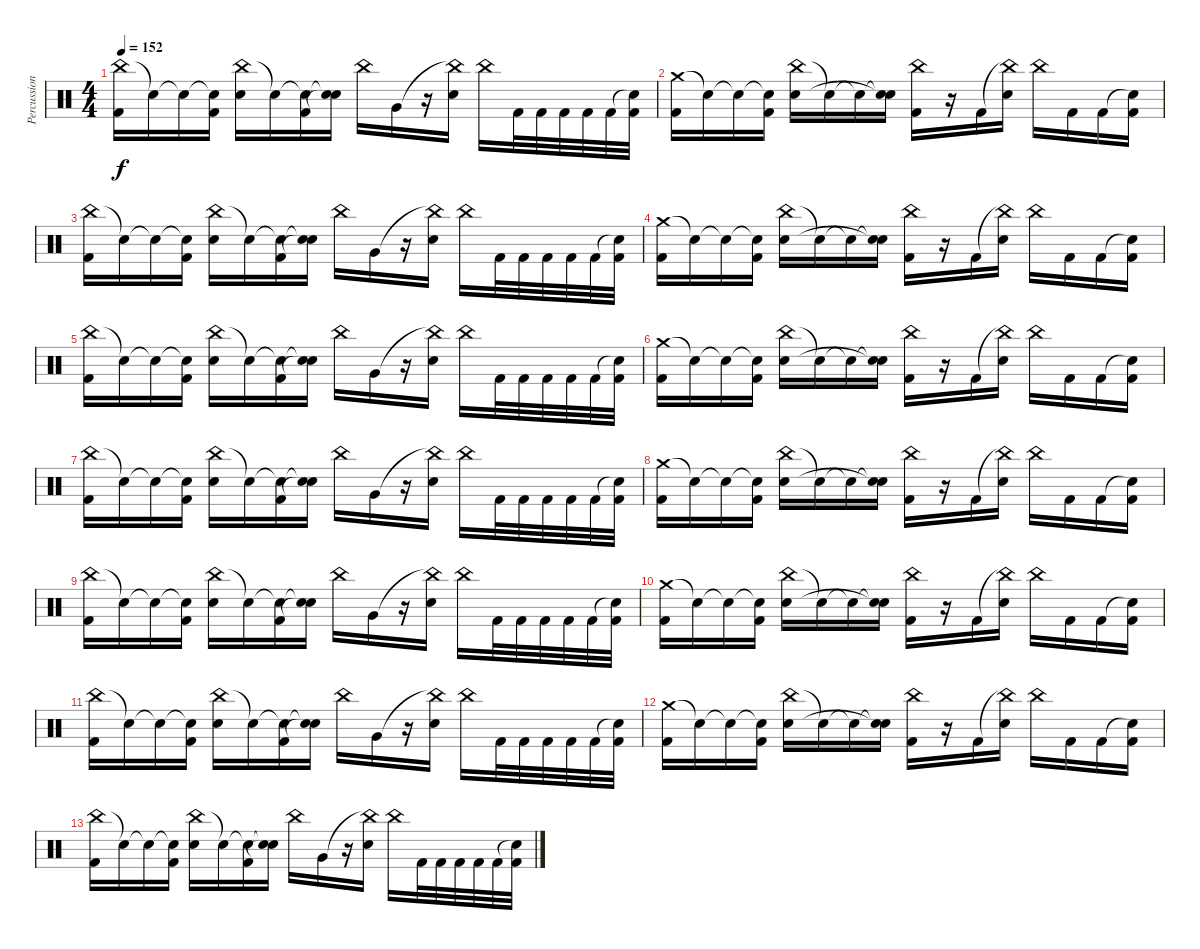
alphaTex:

\track ("Percussion" "Percussion") {instrument percussion}
\staff {score}
\articulation defaults
\ts (4 4)
\tempo 152
\clef neutral
\ks c
("China (hit)" "Kick (hit) 2").16{dy f} "Snare (hit)"{t}.16 "Snare (hit)"{t}.16 ("Snare (hit)"{t} "Kick (hit) 2").16 ("China (hit)" "Electric Snare (hit)").16 "Snare (hit)"{t}.16 ("Snare (hit)"{t} "Kick (hit) 2").16 ("Snare (hit)"{t} "Snare (hit)"{t}).16 "China (hit)".16 "Very Low Tom (hit)".16 r.16 ("China (hit)"{t} "Electric Snare (hit)").16 "China (hit)".16 "Kick (hit) 2".32 "Kick (hit) 2".32 "Kick (hit) 2".32 "Kick (hit) 2".32 "Kick (hit) 2".32 ("Snare (hit)"{t} "Kick (hit) 2").32 |
("Crash medium (hit)" "Kick (hit) 2").16 "Snare (hit)"{t}.16 "Snare (hit)"{t}.16 ("Snare (hit)"{t} "Kick (hit) 2").16 ("China (hit)" "Electric Snare (hit)").16 "Snare (hit)"{t}.16 "Snare (hit)"{t}.16 ("Snare (hit)"{t} "Snare (hit)"{t}).16 ("China (hit)" "Kick (hit) 2").16 r.16 "Kick (hit) 2".16 ("China (hit)"{t} "Electric Snare (hit)").16 "China (hit)".16 "Kick (hit) 2".16 "Kick (hit) 2".16 ("Snare (hit)"{t} "Kick (hit) 2").16 |
("China (hit)" "Kick (hit) 2").16 "Snare (hit)"{t}.16 "Snare (hit)"{t}.16 ("Snare (hit)"{t} "Kick (hit) 2").16 ("China (hit)" "Electric Snare (hit)").16 "Snare (hit)"{t}.16 ("Snare (hit)"{t} "Kick (hit) 2").16 ("Snare (hit)"{t} "Snare (hit)"{t}).16 "China (hit)".16 "Very Low Tom (hit)".16 r.16 ("China (hit)"{t} "Electric Snare (hit)").16 "China (hit)".16 "Kick (hit) 2".32 "Kick (hit) 2".32 "Kick (hit) 2".32 "Kick (hit) 2".32 "Kick (hit) 2".32 ("Snare (hit)"{t} "Kick (hit) 2").32 |
("Crash medium (hit)" "Kick (hit) 2").16 "Snare (hit)"{t}.16 "Snare (hit)"{t}.16 ("Snare (hit)"{t} "Kick (hit) 2").16 ("China (hit)" "Electric Snare (hit)").16 "Snare (hit)"{t}.16 "Snare (hit)"{t}.16 ("Snare (hit)"{t} "Snare (hit)"{t}).16 ("China (hit)" "Kick (hit) 2").16 r.16 "Kick (hit) 2".16 ("China (hit)"{t} "Electric Snare (hit)").16 "China (hit)".16 "Kick (hit) 2".16 "Kick (hit) 2".16 ("Snare (hit)"{t} "Kick (hit) 2").16 |
("China (hit)" "Kick (hit) 2").16 "Snare (hit)"{t}.16 "Snare (hit)"{t}.16 ("Snare (hit)"{t} "Kick (hit) 2").16 ("China (hit)" "Electric Snare (hit)").16 "Snare (hit)"{t}.16 ("Snare (hit)"{t} "Kick (hit) 2").16 ("Snare (hit)"{t} "Snare (hit)"{t}).16 "China (hit)".16 "Very Low Tom (hit)".16 r.16 ("China (hit)"{t} "Electric Snare (hit)").16 "China (hit)".16 "Kick (hit) 2".32 "Kick (hit) 2".32 "Kick (hit) 2".32 "Kick (hit) 2".32 "Kick (hit) 2".32 ("Snare (hit)"{t} "Kick (hit) 2").32 |
("Crash medium (hit)" "Kick (hit) 2").16 "Snare (hit)"{t}.16 "Snare (hit)"{t}.16 ("Snare (hit)"{t} "Kick (hit) 2").16 ("China (hit)" "Electric Snare (hit)").16 "Snare (hit)"{t}.16 "Snare (hit)"{t}.16 ("Snare (hit)"{t} "Snare (hit)"{t}).16 ("China (hit)" "Kick (hit) 2").16 r.16 "Kick (hit) 2".16 ("China (hit)"{t} "Electric Snare (hit)").16 "China (hit)".16 "Kick (hit) 2".16 "Kick (hit) 2".16 ("Snare (hit)"{t} "Kick (hit) 2").16 |
("China (hit)" "Kick (hit) 2").16 "Snare (hit)"{t}.16 "Snare (hit)"{t}.16 ("Snare (hit)"{t} "Kick (hit) 2").16 ("China (hit)" "Electric Snare (hit)").16 "Snare (hit)"{t}.16 ("Snare (hit)"{t} "Kick (hit) 2").16 ("Snare (hit)"{t} "Snare (hit)"{t}).16 "China (hit)".16 "Very Low Tom (hit)".16 r.16 ("China (hit)"{t} "Electric Snare (hit)").16 "China (hit)".16 "Kick (hit) 2".32 "Kick (hit) 2".32 "Kick (hit) 2".32 "Kick (hit) 2".32 "Kick (hit) 2".32 ("Snare (hit)"{t} "Kick (hit) 2").32 |
("Crash medium (hit)" "Kick (hit) 2").16 "Snare (hit)"{t}.16 "Snare (hit)"{t}.16 ("Snare (hit)"{t} "Kick (hit) 2").16 ("China (hit)" "Electric Snare (hit)").16 "Snare (hit)"{t}.16 "Snare (hit)"{t}.16 ("Snare (hit)"{t} "Snare (hit)"{t}).16 ("China (hit)" "Kick (hit) 2").16 r.16 "Kick (hit) 2".16 ("China (hit)"{t} "Electric Snare (hit)").16 "China (hit)".16 "Kick (hit) 2".16 "Kick (hit) 2".16 ("Snare (hit)"{t} "Kick (hit) 2").16 |
("China (hit)" "Kick (hit) 2").16 "Snare (hit)"{t}.16 "Snare (hit)"{t}.16 ("Snare (hit)"{t} "Kick (hit) 2").16 ("China (hit)" "Electric Snare (hit)").16 "Snare (hit)"{t}.16 ("Snare (hit)"{t} "Kick (hit) 2").16 ("Snare (hit)"{t} "Snare (hit)"{t}).16 "China (hit)".16 "Very Low Tom (hit)".16 r.16 ("China (hit)"{t} "Electric Snare (hit)").16 "China (hit)".16 "Kick (hit) 2".32 "Kick (hit) 2".32 "Kick (hit) 2".32 "Kick (hit) 2".32 "Kick (hit) 2".32 ("Snare (hit)"{t} "Kick (hit) 2").32 |
("Crash medium (hit)" "Kick (hit) 2").16 "Snare (hit)"{t}.16 "Snare (hit)"{t}.16 ("Snare (hit)"{t} "Kick (hit) 2").16 ("China (hit)" "Electric Snare (hit)").16 "Snare (hit)"{t}.16 "Snare (hit)"{t}.16 ("Snare (hit)"{t} "Snare (hit)"{t}).16 ("China (hit)" "Kick (hit) 2").16 r.16 "Kick (hit) 2".16 ("China (hit)"{t} "Electric Snare (hit)").16 "China (hit)".16 "Kick (hit) 2".16 "Kick (hit) 2".16 ("Snare (hit)"{t} "Kick (hit) 2").16 |
("China (hit)" "Kick (hit) 2").16 "Snare (hit)"{t}.16 "Snare (hit)"{t}.16 ("Snare (hit)"{t} "Kick (hit) 2").16 ("China (hit)" "Electric Snare (hit)").16 "Snare (hit)"{t}.16 ("Snare (hit)"{t} "Kick (hit) 2").16 ("Snare (hit)"{t} "Snare (hit)"{t}).16 "China (hit)".16 "Very Low Tom (hit)".16 r.16 ("China (hit)"{t} "Electric Snare (hit)").16 "China (hit)".16 "Kick (hit) 2".32 "Kick (hit) 2".32 "Kick (hit) 2".32 "Kick (hit) 2".32 "Kick (hit) 2".32 ("Snare (hit)"{t} "Kick (hit) 2").32 |
("Crash medium (hit)" "Kick (hit) 2").16 "Snare (hit)"{t}.16 "Snare (hit)"{t}.16 ("Snare (hit)"{t} "Kick (hit) 2").16 ("China (hit)" "Electric Snare (hit)").16 "Snare (hit)"{t}.16 "Snare (hit)"{t}.16 ("Snare (hit)"{t} "Snare (hit)"{t}).16 ("China (hit)" "Kick (hit) 2").16 r.16 "Kick (hit) 2".16 ("China (hit)"{t} "Electric Snare (hit)").16 "China (hit)".16 "Kick (hit) 2".16 "Kick (hit) 2".16 ("Snare (hit)"{t} "Kick (hit) 2").16 |
("China (hit)" "Kick (hit) 2").16 "Snare (hit)"{t}.16 "Snare (hit)"{t}.16 ("Snare (hit)"{t} "Kick (hit) 2").16 ("China (hit)" "Electric Snare (hit)").16 "Snare (hit)"{t}.16 ("Snare (hit)"{t} "Kick (hit) 2").16 ("Snare (hit)"{t} "Snare (hit)"{t}).16 "China (hit)".16 "Very Low Tom (hit)".16 r.16 ("China (hit)"{t} "Electric Snare (hit)").16 "China (hit)".16 "Kick (hit) 2".32 "Kick (hit) 2".32 "Kick (hit) 2".32 "Kick (hit) 2".32 "Kick (hit) 2".32 ("Snare (hit)"{t} "Kick (hit) 2").32
